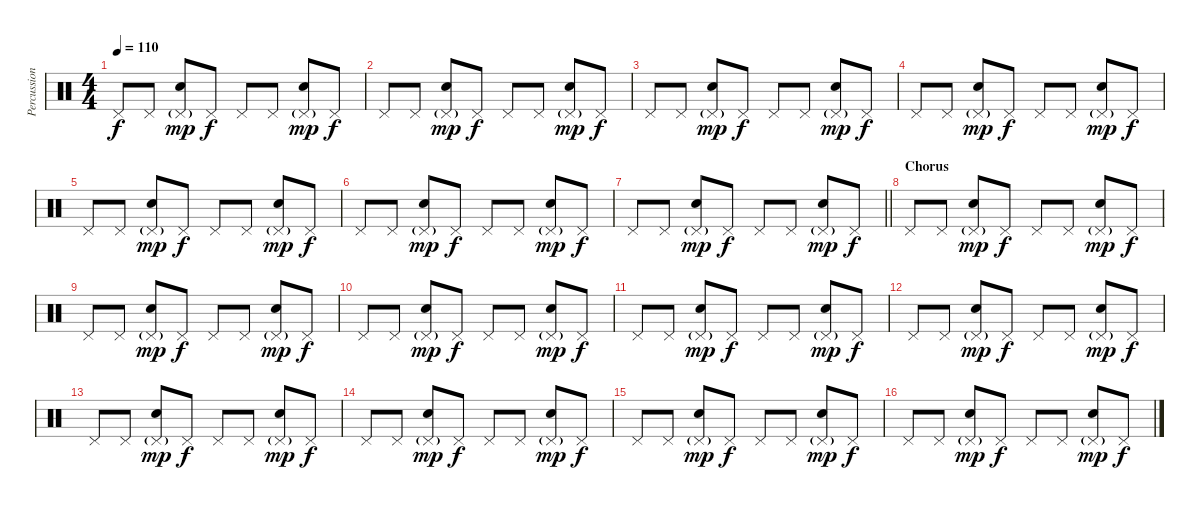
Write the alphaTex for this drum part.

\track ("Percussion" "Percussion") {instrument percussion}
\staff {score}
\articulation defaults
\ts (4 4)
\tempo 110
\clef neutral
\ks c "Pedal Hi-Hat (hit)".8{dy f} "Pedal Hi-Hat (hit)".8
("Pedal Hi-Hat (hit)"{g} "Electric Snare (hit)").8{dy mp} "Pedal Hi-Hat (hit)".8{dy f} "Pedal Hi-Hat (hit)".8 "Pedal Hi-Hat (hit)".8 ("Pedal Hi-Hat (hit)"{g} "Electric Snare (hit)").8{dy mp} "Pedal Hi-Hat (hit)".8{dy f} |
"Pedal Hi-Hat (hit)".8 "Pedal Hi-Hat (hit)".8 ("Pedal Hi-Hat (hit)"{g} "Electric Snare (hit)").8{dy mp} "Pedal Hi-Hat (hit)".8{dy f} "Pedal Hi-Hat (hit)".8 "Pedal Hi-Hat (hit)".8 ("Pedal Hi-Hat (hit)"{g} "Electric Snare (hit)").8{dy mp} "Pedal Hi-Hat (hit)".8{dy f} |
"Pedal Hi-Hat (hit)".8 "Pedal Hi-Hat (hit)".8 ("Pedal Hi-Hat (hit)"{g} "Electric Snare (hit)").8{dy mp} "Pedal Hi-Hat (hit)".8{dy f} "Pedal Hi-Hat (hit)".8 "Pedal Hi-Hat (hit)".8 ("Pedal Hi-Hat (hit)"{g} "Electric Snare (hit)").8{dy mp} "Pedal Hi-Hat (hit)".8{dy f} |
"Pedal Hi-Hat (hit)".8 "Pedal Hi-Hat (hit)".8 ("Pedal Hi-Hat (hit)"{g} "Electric Snare (hit)").8{dy mp} "Pedal Hi-Hat (hit)".8{dy f} "Pedal Hi-Hat (hit)".8 "Pedal Hi-Hat (hit)".8 ("Pedal Hi-Hat (hit)"{g} "Electric Snare (hit)").8{dy mp} "Pedal Hi-Hat (hit)".8{dy f} |
"Pedal Hi-Hat (hit)".8 "Pedal Hi-Hat (hit)".8 ("Pedal Hi-Hat (hit)"{g} "Electric Snare (hit)").8{dy mp} "Pedal Hi-Hat (hit)".8{dy f} "Pedal Hi-Hat (hit)".8 "Pedal Hi-Hat (hit)".8 ("Pedal Hi-Hat (hit)"{g} "Electric Snare (hit)").8{dy mp} "Pedal Hi-Hat (hit)".8{dy f} |
"Pedal Hi-Hat (hit)".8 "Pedal Hi-Hat (hit)".8 ("Pedal Hi-Hat (hit)"{g} "Electric Snare (hit)").8{dy mp} "Pedal Hi-Hat (hit)".8{dy f} "Pedal Hi-Hat (hit)".8 "Pedal Hi-Hat (hit)".8 ("Pedal Hi-Hat (hit)"{g} "Electric Snare (hit)").8{dy mp} "Pedal Hi-Hat (hit)".8{dy f} |
\barLineRight lightlight "Pedal Hi-Hat (hit)".8 "Pedal Hi-Hat (hit)".8
("Pedal Hi-Hat (hit)"{g} "Electric Snare (hit)").8{dy mp} "Pedal Hi-Hat (hit)".8{dy f} "Pedal Hi-Hat (hit)".8 "Pedal Hi-Hat (hit)".8 ("Pedal Hi-Hat (hit)"{g} "Electric Snare (hit)").8{dy mp} "Pedal Hi-Hat (hit)".8{dy f} |
\section ("" "Chorus")
"Pedal Hi-Hat (hit)".8 "Pedal Hi-Hat (hit)".8 ("Pedal Hi-Hat (hit)"{g} "Electric Snare (hit)").8{dy mp} "Pedal Hi-Hat (hit)".8{dy f} "Pedal Hi-Hat (hit)".8 "Pedal Hi-Hat (hit)".8 ("Pedal Hi-Hat (hit)"{g} "Electric Snare (hit)").8{dy mp} "Pedal Hi-Hat (hit)".8{dy f} |
"Pedal Hi-Hat (hit)".8 "Pedal Hi-Hat (hit)".8 ("Pedal Hi-Hat (hit)"{g} "Electric Snare (hit)").8{dy mp} "Pedal Hi-Hat (hit)".8{dy f} "Pedal Hi-Hat (hit)".8 "Pedal Hi-Hat (hit)".8 ("Pedal Hi-Hat (hit)"{g} "Electric Snare (hit)").8{dy mp} "Pedal Hi-Hat (hit)".8{dy f} |
"Pedal Hi-Hat (hit)".8 "Pedal Hi-Hat (hit)".8 ("Pedal Hi-Hat (hit)"{g} "Electric Snare (hit)").8{dy mp} "Pedal Hi-Hat (hit)".8{dy f} "Pedal Hi-Hat (hit)".8 "Pedal Hi-Hat (hit)".8 ("Pedal Hi-Hat (hit)"{g} "Electric Snare (hit)").8{dy mp} "Pedal Hi-Hat (hit)".8{dy f} |
"Pedal Hi-Hat (hit)".8 "Pedal Hi-Hat (hit)".8 ("Pedal Hi-Hat (hit)"{g} "Electric Snare (hit)").8{dy mp} "Pedal Hi-Hat (hit)".8{dy f} "Pedal Hi-Hat (hit)".8 "Pedal Hi-Hat (hit)".8 ("Pedal Hi-Hat (hit)"{g} "Electric Snare (hit)").8{dy mp} "Pedal Hi-Hat (hit)".8{dy f} |
"Pedal Hi-Hat (hit)".8 "Pedal Hi-Hat (hit)".8 ("Pedal Hi-Hat (hit)"{g} "Electric Snare (hit)").8{dy mp} "Pedal Hi-Hat (hit)".8{dy f} "Pedal Hi-Hat (hit)".8 "Pedal Hi-Hat (hit)".8 ("Pedal Hi-Hat (hit)"{g} "Electric Snare (hit)").8{dy mp} "Pedal Hi-Hat (hit)".8{dy f} |
"Pedal Hi-Hat (hit)".8 "Pedal Hi-Hat (hit)".8 ("Pedal Hi-Hat (hit)"{g} "Electric Snare (hit)").8{dy mp} "Pedal Hi-Hat (hit)".8{dy f} "Pedal Hi-Hat (hit)".8 "Pedal Hi-Hat (hit)".8 ("Pedal Hi-Hat (hit)"{g} "Electric Snare (hit)").8{dy mp} "Pedal Hi-Hat (hit)".8{dy f} |
"Pedal Hi-Hat (hit)".8 "Pedal Hi-Hat (hit)".8 ("Pedal Hi-Hat (hit)"{g} "Electric Snare (hit)").8{dy mp} "Pedal Hi-Hat (hit)".8{dy f} "Pedal Hi-Hat (hit)".8 "Pedal Hi-Hat (hit)".8 ("Pedal Hi-Hat (hit)"{g} "Electric Snare (hit)").8{dy mp} "Pedal Hi-Hat (hit)".8{dy f} |
"Pedal Hi-Hat (hit)".8 "Pedal Hi-Hat (hit)".8 ("Pedal Hi-Hat (hit)"{g} "Electric Snare (hit)").8{dy mp} "Pedal Hi-Hat (hit)".8{dy f} "Pedal Hi-Hat (hit)".8 "Pedal Hi-Hat (hit)".8 ("Pedal Hi-Hat (hit)"{g} "Electric Snare (hit)").8{dy mp} "Pedal Hi-Hat (hit)".8{dy f} |
"Pedal Hi-Hat (hit)".8 "Pedal Hi-Hat (hit)".8 ("Pedal Hi-Hat (hit)"{g} "Electric Snare (hit)").8{dy mp} "Pedal Hi-Hat (hit)".8{dy f} "Pedal Hi-Hat (hit)".8 "Pedal Hi-Hat (hit)".8 ("Pedal Hi-Hat (hit)"{g} "Electric Snare (hit)").8{dy mp} "Pedal Hi-Hat (hit)".8{dy f}
